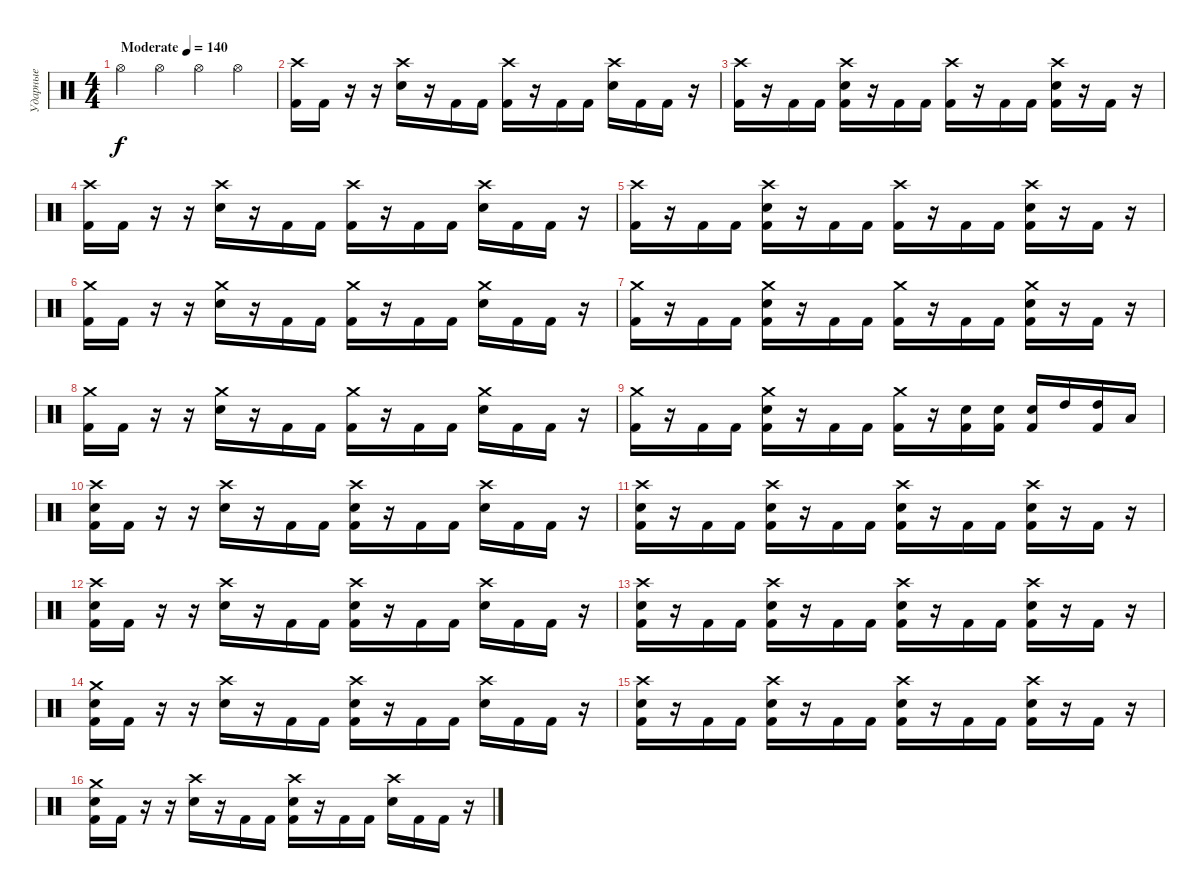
\track ("Ударные" "Ударные") {instrument percussion}
\staff {score}
\articulation defaults
\ts (4 4)
\tempo (140 "Moderate")
\clef neutral
\ks c "Hi-Hat (open)".4{dy f} "Hi-Hat (open)".4 "Hi-Hat (open)".4 "Hi-Hat (open)".4
|
("Crash high (hit)" "Kick (hit) 2").16 "Kick (hit) 2".16 r.16 r.16 ("Crash high (hit)" "Electric Snare (hit)").16 r.16 "Kick (hit) 2".16 "Kick (hit) 2".16 ("Crash high (hit)" "Kick (hit) 2").16 r.16 "Kick (hit) 2".16 "Kick (hit) 2".16 ("Crash high (hit)" "Electric Snare (hit)").16 "Kick (hit) 2".16 "Kick (hit) 2".16 r.16 |
("Crash high (hit)" "Kick (hit) 2").16 r.16 "Kick (hit) 2".16 "Kick (hit) 2".16 ("Crash high (hit)" "Electric Snare (hit)" "Kick (hit) 2").16 r.16 "Kick (hit) 2".16 "Kick (hit) 2".16 ("Crash high (hit)" "Kick (hit) 2").16 r.16 "Kick (hit) 2".16 "Kick (hit) 2".16 ("Crash high (hit)" "Electric Snare (hit)" "Kick (hit) 2").16 r.16 "Kick (hit) 2".16 r.16 |
("Crash high (hit)" "Kick (hit) 2").16 "Kick (hit) 2".16 r.16 r.16 ("Crash high (hit)" "Electric Snare (hit)").16 r.16 "Kick (hit) 2".16 "Kick (hit) 2".16 ("Crash high (hit)" "Kick (hit) 2").16 r.16 "Kick (hit) 2".16 "Kick (hit) 2".16 ("Crash high (hit)" "Electric Snare (hit)").16 "Kick (hit) 2".16 "Kick (hit) 2".16 r.16 |
("Crash high (hit)" "Kick (hit) 2").16 r.16 "Kick (hit) 2".16 "Kick (hit) 2".16 ("Crash high (hit)" "Electric Snare (hit)" "Kick (hit) 2").16 r.16 "Kick (hit) 2".16 "Kick (hit) 2".16 ("Crash high (hit)" "Kick (hit) 2").16 r.16 "Kick (hit) 2".16 "Kick (hit) 2".16 ("Crash high (hit)" "Electric Snare (hit)" "Kick (hit) 2").16 r.16 "Kick (hit) 2".16 r.16 |
("Crash medium (hit)" "Kick (hit) 2").16 "Kick (hit) 2".16 r.16 r.16 ("Crash medium (hit)" "Electric Snare (hit)").16 r.16 "Kick (hit) 2".16 "Kick (hit) 2".16 ("Crash medium (hit)" "Kick (hit) 2").16 r.16 "Kick (hit) 2".16 "Kick (hit) 2".16 ("Crash medium (hit)" "Electric Snare (hit)").16 "Kick (hit) 2".16 "Kick (hit) 2".16 r.16 |
("Crash medium (hit)" "Kick (hit) 2").16 r.16 "Kick (hit) 2".16 "Kick (hit) 2".16 ("Crash medium (hit)" "Electric Snare (hit)" "Kick (hit) 2").16 r.16 "Kick (hit) 2".16 "Kick (hit) 2".16 ("Crash medium (hit)" "Kick (hit) 2").16 r.16 "Kick (hit) 2".16 "Kick (hit) 2".16 ("Crash medium (hit)" "Electric Snare (hit)" "Kick (hit) 2").16 r.16 "Kick (hit) 2".16 r.16 |
("Crash medium (hit)" "Kick (hit) 2").16 "Kick (hit) 2".16 r.16 r.16 ("Crash medium (hit)" "Electric Snare (hit)").16 r.16 "Kick (hit) 2".16 "Kick (hit) 2".16 ("Crash medium (hit)" "Kick (hit) 2").16 r.16 "Kick (hit) 2".16 "Kick (hit) 2".16 ("Crash medium (hit)" "Electric Snare (hit)").16 "Kick (hit) 2".16 "Kick (hit) 2".16 r.16 |
("Crash medium (hit)" "Kick (hit) 2").16 r.16 "Kick (hit) 2".16 "Kick (hit) 2".16 ("Crash medium (hit)" "Electric Snare (hit)" "Kick (hit) 2").16 r.16 "Kick (hit) 2".16 "Kick (hit) 2".16 ("Crash medium (hit)" "Kick (hit) 2").16 r.16 ("Electric Snare (hit)" "Kick (hit) 2").16 ("Electric Snare (hit)" "Kick (hit) 2").16 ("Electric Snare (hit)" "Kick (hit) 2").16 "High Tom (hit)".16 ("High Tom (hit)" "Kick (hit) 2").16 "Low Tom (hit)".16 |
("Crash high (hit)" "Electric Snare (hit)" "Kick (hit) 2").16 "Kick (hit) 2".16 r.16 r.16 ("Crash high (hit)" "Electric Snare (hit)").16 r.16 "Kick (hit) 2".16 "Kick (hit) 2".16 ("Crash high (hit)" "Electric Snare (hit)" "Kick (hit) 2").16 r.16 "Kick (hit) 2".16 "Kick (hit) 2".16 ("Crash high (hit)" "Electric Snare (hit)").16 "Kick (hit) 2".16 "Kick (hit) 2".16 r.16 |
("Crash high (hit)" "Electric Snare (hit)" "Kick (hit) 2").16 r.16 "Kick (hit) 2".16 "Kick (hit) 2".16 ("Crash high (hit)" "Electric Snare (hit)" "Kick (hit) 2").16 r.16 "Kick (hit) 2".16 "Kick (hit) 2".16 ("Crash high (hit)" "Electric Snare (hit)" "Kick (hit) 2").16 r.16 "Kick (hit) 2".16 "Kick (hit) 2".16 ("Crash high (hit)" "Electric Snare (hit)" "Kick (hit) 2").16 r.16 "Kick (hit) 2".16 r.16 |
("Crash high (hit)" "Electric Snare (hit)" "Kick (hit) 2").16 "Kick (hit) 2".16 r.16 r.16 ("Crash high (hit)" "Electric Snare (hit)").16 r.16 "Kick (hit) 2".16 "Kick (hit) 2".16 ("Crash high (hit)" "Electric Snare (hit)" "Kick (hit) 2").16 r.16 "Kick (hit) 2".16 "Kick (hit) 2".16 ("Crash high (hit)" "Electric Snare (hit)").16 "Kick (hit) 2".16 "Kick (hit) 2".16 r.16 |
("Crash high (hit)" "Electric Snare (hit)" "Kick (hit) 2").16 r.16 "Kick (hit) 2".16 "Kick (hit) 2".16 ("Crash high (hit)" "Electric Snare (hit)" "Kick (hit) 2").16 r.16 "Kick (hit) 2".16 "Kick (hit) 2".16 ("Crash high (hit)" "Electric Snare (hit)" "Kick (hit) 2").16 r.16 "Kick (hit) 2".16 "Kick (hit) 2".16 ("Crash high (hit)" "Electric Snare (hit)" "Kick (hit) 2").16 r.16 "Kick (hit) 2".16 r.16 |
("Crash medium (hit)" "Electric Snare (hit)" "Kick (hit) 2").16 "Kick (hit) 2".16 r.16 r.16 ("Crash high (hit)" "Electric Snare (hit)").16 r.16 "Kick (hit) 2".16 "Kick (hit) 2".16 ("Crash high (hit)" "Electric Snare (hit)" "Kick (hit) 2").16 r.16 "Kick (hit) 2".16 "Kick (hit) 2".16 ("Crash high (hit)" "Electric Snare (hit)").16 "Kick (hit) 2".16 "Kick (hit) 2".16 r.16 |
("Crash high (hit)" "Electric Snare (hit)" "Kick (hit) 2").16 r.16 "Kick (hit) 2".16 "Kick (hit) 2".16 ("Crash high (hit)" "Electric Snare (hit)" "Kick (hit) 2").16 r.16 "Kick (hit) 2".16 "Kick (hit) 2".16 ("Crash high (hit)" "Electric Snare (hit)" "Kick (hit) 2").16 r.16 "Kick (hit) 2".16 "Kick (hit) 2".16 ("Crash high (hit)" "Electric Snare (hit)" "Kick (hit) 2").16 r.16 "Kick (hit) 2".16 r.16 |
("Crash medium (hit)" "Electric Snare (hit)" "Kick (hit) 2").16 "Kick (hit) 2".16 r.16 r.16 ("Crash high (hit)" "Electric Snare (hit)").16 r.16 "Kick (hit) 2".16 "Kick (hit) 2".16 ("Crash high (hit)" "Electric Snare (hit)" "Kick (hit) 2").16 r.16 "Kick (hit) 2".16 "Kick (hit) 2".16 ("Crash high (hit)" "Electric Snare (hit)").16 "Kick (hit) 2".16 "Kick (hit) 2".16 r.16
